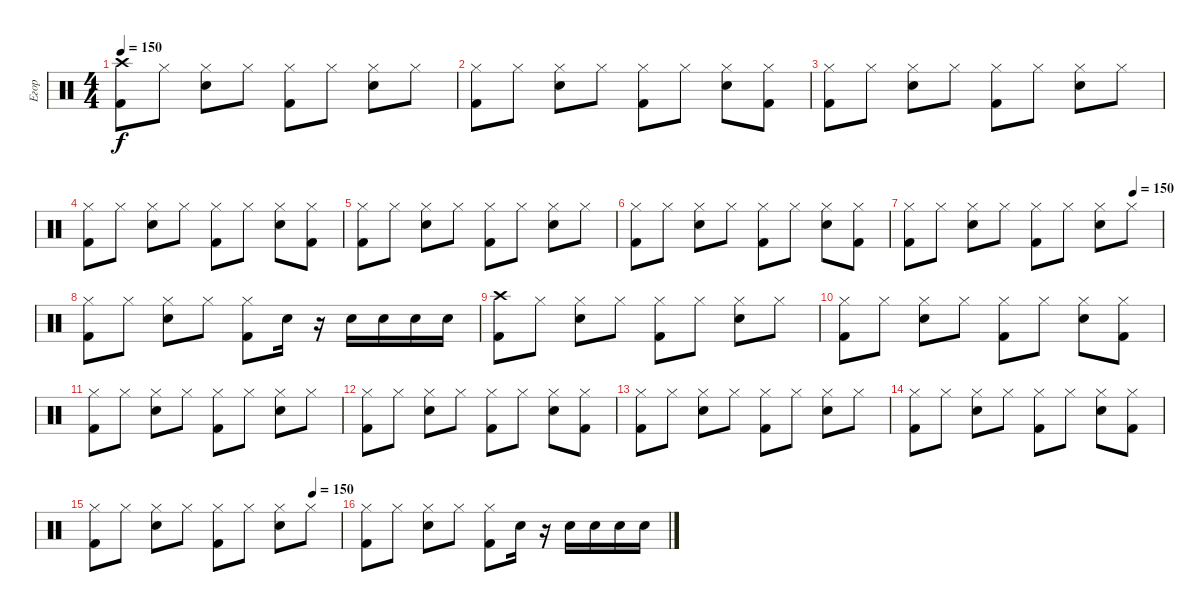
\track ("Егор" "Егор") {instrument percussion}
\staff {score}
\articulation defaults
\ts (4 4)
\tempo 150
\clef neutral
\ks c
("Crash high (hit)" "Kick (hit) 2").8{dy f} "Hi-Hat (closed)".8 ("Hi-Hat (closed)" "Snare (hit) 2").8 "Hi-Hat (closed)".8 ("Hi-Hat (closed)" "Kick (hit) 2").8 "Hi-Hat (closed)".8 ("Hi-Hat (closed)" "Snare (hit) 2").8 "Hi-Hat (closed)".8 |
("Hi-Hat (closed)" "Kick (hit) 2").8 "Hi-Hat (closed)".8 ("Hi-Hat (closed)" "Snare (hit) 2").8 "Hi-Hat (closed)".8 ("Hi-Hat (closed)" "Kick (hit) 2").8 "Hi-Hat (closed)".8 ("Hi-Hat (closed)" "Snare (hit) 2").8 ("Hi-Hat (closed)" "Kick (hit) 2").8 |
("Hi-Hat (closed)" "Kick (hit) 2").8 "Hi-Hat (closed)".8 ("Hi-Hat (closed)" "Snare (hit) 2").8 "Hi-Hat (closed)".8 ("Hi-Hat (closed)" "Kick (hit) 2").8 "Hi-Hat (closed)".8 ("Hi-Hat (closed)" "Snare (hit) 2").8 "Hi-Hat (closed)".8 |
("Hi-Hat (closed)" "Kick (hit) 2").8 "Hi-Hat (closed)".8 ("Hi-Hat (closed)" "Snare (hit) 2").8 "Hi-Hat (closed)".8 ("Hi-Hat (closed)" "Kick (hit) 2").8 "Hi-Hat (closed)".8 ("Hi-Hat (closed)" "Snare (hit) 2").8 ("Hi-Hat (closed)" "Kick (hit) 2").8 |
("Hi-Hat (closed)" "Kick (hit) 2").8 "Hi-Hat (closed)".8 ("Hi-Hat (closed)" "Snare (hit) 2").8 "Hi-Hat (closed)".8 ("Hi-Hat (closed)" "Kick (hit) 2").8 "Hi-Hat (closed)".8 ("Hi-Hat (closed)" "Snare (hit) 2").8 "Hi-Hat (closed)".8 |
("Hi-Hat (closed)" "Kick (hit) 2").8 "Hi-Hat (closed)".8 ("Hi-Hat (closed)" "Snare (hit) 2").8 "Hi-Hat (closed)".8 ("Hi-Hat (closed)" "Kick (hit) 2").8 "Hi-Hat (closed)".8 ("Hi-Hat (closed)" "Snare (hit) 2").8 ("Hi-Hat (closed)" "Kick (hit) 2").8 |
\tempo (150 0.8875)
("Hi-Hat (closed)" "Kick (hit) 2").8 "Hi-Hat (closed)".8 ("Hi-Hat (closed)" "Snare (hit) 2").8 "Hi-Hat (closed)".8 ("Hi-Hat (closed)" "Kick (hit) 2").8 "Hi-Hat (closed)".8 ("Hi-Hat (closed)" "Snare (hit) 2").8 "Hi-Hat (closed)".8 |
("Hi-Hat (closed)" "Kick (hit) 2").8 "Hi-Hat (closed)".8 ("Hi-Hat (closed)" "Snare (hit) 2").8 "Hi-Hat (closed)".8 ("Hi-Hat (closed)" "Kick (hit) 2").8 "Snare (hit) 2".16 r.16 "Snare (hit) 2".16 "Snare (hit) 2".16 "Snare (hit) 2".16 "Snare (hit) 2".16 |
("Crash high (hit)" "Kick (hit) 2").8 "Hi-Hat (closed)".8 ("Hi-Hat (closed)" "Snare (hit) 2").8 "Hi-Hat (closed)".8 ("Hi-Hat (closed)" "Kick (hit) 2").8 "Hi-Hat (closed)".8 ("Hi-Hat (closed)" "Snare (hit) 2").8 "Hi-Hat (closed)".8 |
("Hi-Hat (closed)" "Kick (hit) 2").8 "Hi-Hat (closed)".8 ("Hi-Hat (closed)" "Snare (hit) 2").8 "Hi-Hat (closed)".8 ("Hi-Hat (closed)" "Kick (hit) 2").8 "Hi-Hat (closed)".8 ("Hi-Hat (closed)" "Snare (hit) 2").8 ("Hi-Hat (closed)" "Kick (hit) 2").8 |
("Hi-Hat (closed)" "Kick (hit) 2").8 "Hi-Hat (closed)".8 ("Hi-Hat (closed)" "Snare (hit) 2").8 "Hi-Hat (closed)".8 ("Hi-Hat (closed)" "Kick (hit) 2").8 "Hi-Hat (closed)".8 ("Hi-Hat (closed)" "Snare (hit) 2").8 "Hi-Hat (closed)".8 |
("Hi-Hat (closed)" "Kick (hit) 2").8 "Hi-Hat (closed)".8 ("Hi-Hat (closed)" "Snare (hit) 2").8 "Hi-Hat (closed)".8 ("Hi-Hat (closed)" "Kick (hit) 2").8 "Hi-Hat (closed)".8 ("Hi-Hat (closed)" "Snare (hit) 2").8 ("Hi-Hat (closed)" "Kick (hit) 2").8 |
("Hi-Hat (closed)" "Kick (hit) 2").8 "Hi-Hat (closed)".8 ("Hi-Hat (closed)" "Snare (hit) 2").8 "Hi-Hat (closed)".8 ("Hi-Hat (closed)" "Kick (hit) 2").8 "Hi-Hat (closed)".8 ("Hi-Hat (closed)" "Snare (hit) 2").8 "Hi-Hat (closed)".8 |
("Hi-Hat (closed)" "Kick (hit) 2").8 "Hi-Hat (closed)".8 ("Hi-Hat (closed)" "Snare (hit) 2").8 "Hi-Hat (closed)".8 ("Hi-Hat (closed)" "Kick (hit) 2").8 "Hi-Hat (closed)".8 ("Hi-Hat (closed)" "Snare (hit) 2").8 ("Hi-Hat (closed)" "Kick (hit) 2").8 |
\tempo (150 0.8875)
("Hi-Hat (closed)" "Kick (hit) 2").8 "Hi-Hat (closed)".8 ("Hi-Hat (closed)" "Snare (hit) 2").8 "Hi-Hat (closed)".8 ("Hi-Hat (closed)" "Kick (hit) 2").8 "Hi-Hat (closed)".8 ("Hi-Hat (closed)" "Snare (hit) 2").8 "Hi-Hat (closed)".8 |
("Hi-Hat (closed)" "Kick (hit) 2").8 "Hi-Hat (closed)".8 ("Hi-Hat (closed)" "Snare (hit) 2").8 "Hi-Hat (closed)".8 ("Hi-Hat (closed)" "Kick (hit) 2").8 "Snare (hit) 2".16 r.16 "Snare (hit) 2".16 "Snare (hit) 2".16 "Snare (hit) 2".16 "Snare (hit) 2".16
